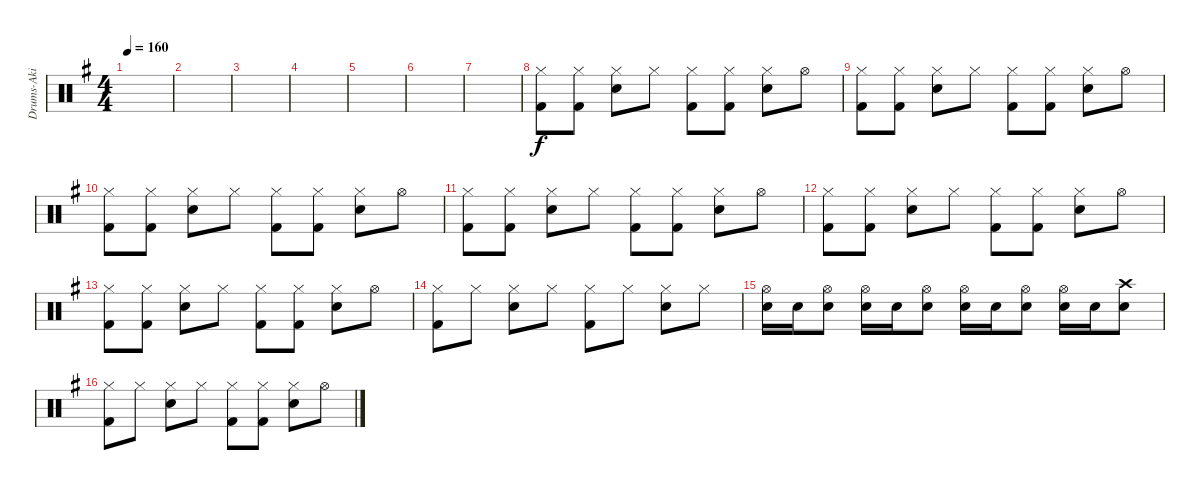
\track ("Drums-Aki" "Drums-Aki") {instrument percussion}
\staff {score}
\articulation defaults
\ts (4 4)
\tempo 160
\clef neutral
\ks g
|
|
|
|
|
|
|
("Hi-Hat (closed)" "Kick (hit) 2").8 ("Hi-Hat (closed)" "Kick (hit) 2").8 ("Hi-Hat (closed)" "Electric Snare (hit)").8 "Hi-Hat (closed)".8 ("Hi-Hat (closed)" "Kick (hit) 2").8 ("Hi-Hat (closed)" "Kick (hit) 2").8 ("Hi-Hat (closed)" "Electric Snare (hit)").8 "Hi-Hat (open)".8 |
("Hi-Hat (closed)" "Kick (hit) 2").8 ("Hi-Hat (closed)" "Kick (hit) 2").8 ("Hi-Hat (closed)" "Electric Snare (hit)").8 "Hi-Hat (closed)".8 ("Hi-Hat (closed)" "Kick (hit) 2").8 ("Hi-Hat (closed)" "Kick (hit) 2").8 ("Hi-Hat (closed)" "Electric Snare (hit)").8 "Hi-Hat (open)".8 |
("Hi-Hat (closed)" "Kick (hit) 2").8 ("Hi-Hat (closed)" "Kick (hit) 2").8 ("Hi-Hat (closed)" "Electric Snare (hit)").8 "Hi-Hat (closed)".8 ("Hi-Hat (closed)" "Kick (hit) 2").8 ("Hi-Hat (closed)" "Kick (hit) 2").8 ("Hi-Hat (closed)" "Electric Snare (hit)").8 "Hi-Hat (open)".8 |
("Hi-Hat (closed)" "Kick (hit) 2").8 ("Hi-Hat (closed)" "Kick (hit) 2").8 ("Hi-Hat (closed)" "Electric Snare (hit)").8 "Hi-Hat (closed)".8 ("Hi-Hat (closed)" "Kick (hit) 2").8 ("Hi-Hat (closed)" "Kick (hit) 2").8 ("Hi-Hat (closed)" "Electric Snare (hit)").8 "Hi-Hat (open)".8 |
("Hi-Hat (closed)" "Kick (hit) 2").8 ("Hi-Hat (closed)" "Kick (hit) 2").8 ("Hi-Hat (closed)" "Electric Snare (hit)").8 "Hi-Hat (closed)".8 ("Hi-Hat (closed)" "Kick (hit) 2").8 ("Hi-Hat (closed)" "Kick (hit) 2").8 ("Hi-Hat (closed)" "Electric Snare (hit)").8 "Hi-Hat (open)".8 |
("Hi-Hat (closed)" "Kick (hit) 2").8 ("Hi-Hat (closed)" "Kick (hit) 2").8 ("Hi-Hat (closed)" "Electric Snare (hit)").8 "Hi-Hat (closed)".8 ("Hi-Hat (closed)" "Kick (hit) 2").8 ("Hi-Hat (closed)" "Kick (hit) 2").8 ("Hi-Hat (closed)" "Electric Snare (hit)").8 "Hi-Hat (open)".8 |
("Hi-Hat (closed)" "Kick (hit) 2").8 "Hi-Hat (closed)".8 ("Hi-Hat (closed)" "Electric Snare (hit)").8 "Hi-Hat (closed)".8 ("Hi-Hat (closed)" "Kick (hit) 2").8 "Hi-Hat (closed)".8 ("Hi-Hat (closed)" "Electric Snare (hit)").8 "Hi-Hat (closed)".8 |
("Hi-Hat (open)" "Electric Snare (hit)").16 "Electric Snare (hit)".16 ("Hi-Hat (open)" "Electric Snare (hit)").8 ("Hi-Hat (open)" "Electric Snare (hit)").16 "Electric Snare (hit)".16 ("Hi-Hat (open)" "Electric Snare (hit)").8 ("Hi-Hat (open)" "Electric Snare (hit)").16 "Electric Snare (hit)".16 ("Hi-Hat (open)" "Electric Snare (hit)").8 ("Hi-Hat (open)" "Electric Snare (hit)").16 "Electric Snare (hit)".16 ("Crash high (hit)" "Electric Snare (hit)").8 |
("Hi-Hat (closed)" "Kick (hit) 2").8 "Hi-Hat (closed)".8 ("Hi-Hat (closed)" "Electric Snare (hit)").8 "Hi-Hat (closed)".8 ("Hi-Hat (closed)" "Kick (hit) 2").8 ("Hi-Hat (closed)" "Kick (hit) 2").8 ("Hi-Hat (closed)" "Electric Snare (hit)").8 "Hi-Hat (open)".8
